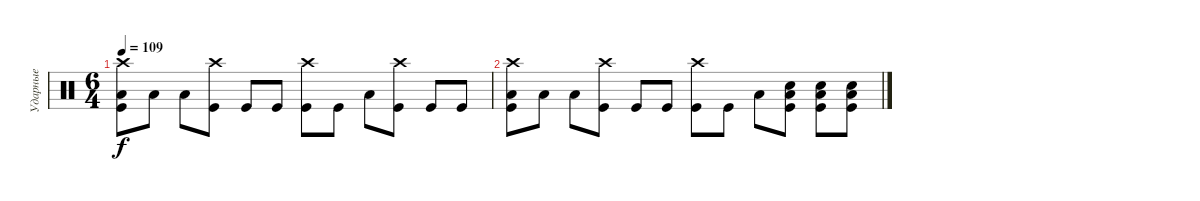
\track ("Ударные" "Ударные") {instrument percussion}
\staff {score}
\articulation defaults
\ts (6 4)
\tempo 109
\clef neutral
\ks c
("Crash high (hit)" "Low Tom (hit)" "Kick (hit)").8{dy f} "Low Tom (hit)".8 "Low Tom (hit)".8 ("Kick (hit)" "Crash high (hit)").8 "Kick (hit)".8 "Kick (hit)".8 ("Kick (hit)" "Crash high (hit)").8 "Kick (hit)".8 "Low Tom (hit)".8 ("Crash high (hit)" "Kick (hit)").8 "Kick (hit)".8 "Kick (hit)".8 |
("Crash high (hit)" "Low Tom (hit)" "Kick (hit)").8 "Low Tom (hit)".8 "Low Tom (hit)".8 ("Kick (hit)" "Crash high (hit)").8 "Kick (hit)".8 "Kick (hit)".8 ("Kick (hit)" "Crash high (hit)").8 "Kick (hit)".8 "Low Tom (hit)".8 ("Low Tom (hit)" "Electric Snare (hit)" "Kick (hit)").8 ("Low Tom (hit)" "Electric Snare (hit)" "Kick (hit)").8 ("Low Tom (hit)" "Electric Snare (hit)" "Kick (hit)").8
